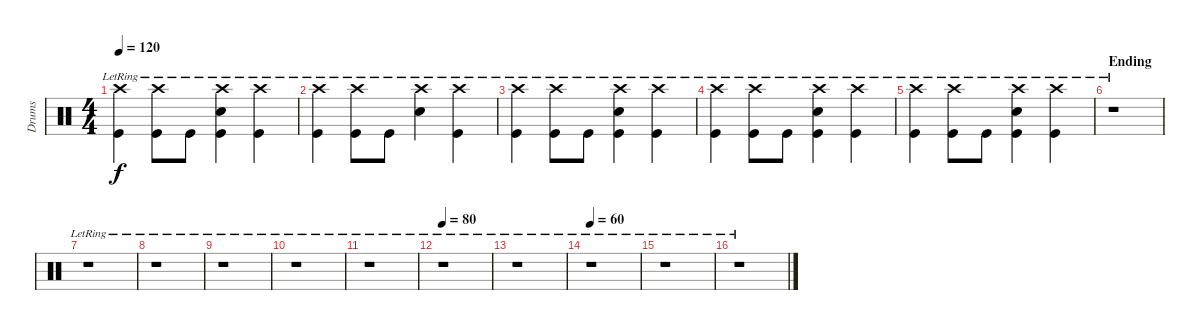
\track ("Drums" "Drums") {instrument percussion}
\staff {score}
\articulation defaults
\ts (4 4)
\tempo 120
\clef neutral
\ks c
("Crash high (hit)"{lr} "Kick (hit)"{lr}).4{dy f} ("Crash high (hit)"{lr} "Kick (hit)").8 "Kick (hit)"{lr}.8 ("Crash high (hit)"{lr} "Snare (hit) 2"{lr} "Kick (hit)").4 ("Crash high (hit)"{lr} "Kick (hit)").4 |
("Crash high (hit)"{lr} "Kick (hit)"{lr}).4 ("Crash high (hit)"{lr} "Kick (hit)").8 "Kick (hit)"{lr}.8 ("Crash high (hit)"{lr} "Snare (hit) 2"{lr}).4 ("Crash high (hit)"{lr} "Kick (hit)").4 |
("Crash high (hit)"{lr} "Kick (hit)"{lr}).4 ("Crash high (hit)"{lr} "Kick (hit)").8 "Kick (hit)"{lr}.8 ("Crash high (hit)"{lr} "Snare (hit) 2"{lr} "Kick (hit)").4 ("Crash high (hit)"{lr} "Kick (hit)").4 |
("Crash high (hit)"{lr} "Kick (hit)"{lr}).4{volume 6} ("Crash high (hit)"{lr} "Kick (hit)").8 "Kick (hit)"{lr}.8 ("Crash high (hit)"{lr} "Snare (hit) 2"{lr} "Kick (hit)").4 ("Crash high (hit)"{lr} "Kick (hit)").4 |
("Crash high (hit)"{lr} "Kick (hit)"{lr}).4 ("Crash high (hit)"{lr} "Kick (hit)").8 "Kick (hit)"{lr}.8 ("Crash high (hit)"{lr} "Snare (hit) 2"{lr} "Kick (hit)").4{volume 0} ("Crash high (hit)"{lr} "Kick (hit)").4 |
\section ("" "Ending")
r.1 |
r.1 |
r.1 |
r.1 |
r.1 |
r.1 |
\tempo 80
r.1 |
r.1 |
\tempo 60
r.1 |
r.1 |
r.1
